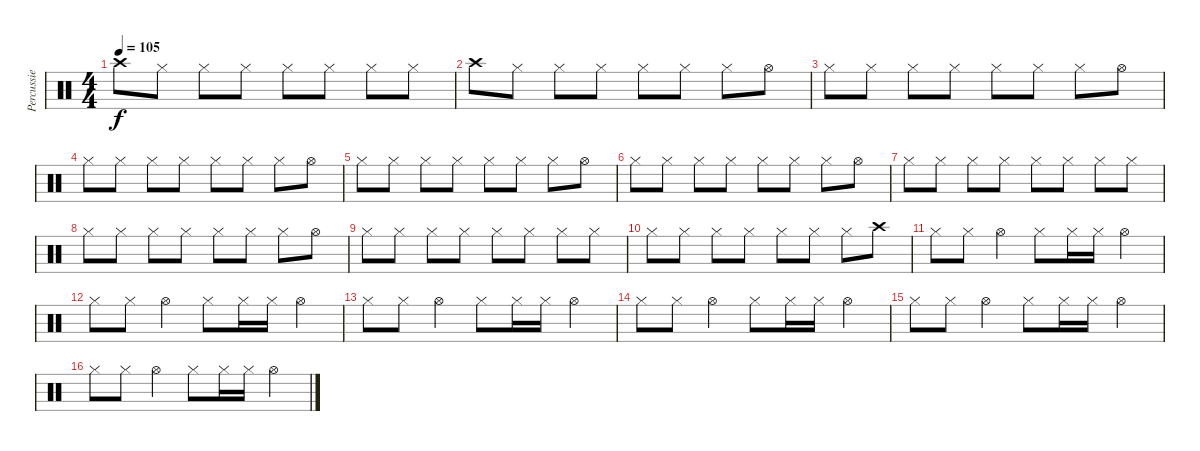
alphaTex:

\track ("Percussie" "Percussie") {instrument percussion}
\staff {score}
\articulation defaults
\ts (4 4)
\tempo 105
\clef neutral
\ks c "Crash high (hit)".8{dy f} "Hi-Hat (closed)".8 "Hi-Hat (closed)".8 "Hi-Hat (closed)".8 "Hi-Hat (closed)".8 "Hi-Hat (closed)".8 "Hi-Hat (closed)".8 "Hi-Hat (closed)".8
|
"Crash high (hit)".8 "Hi-Hat (closed)".8 "Hi-Hat (closed)".8 "Hi-Hat (closed)".8 "Hi-Hat (closed)".8 "Hi-Hat (closed)".8 "Hi-Hat (closed)".8 "Hi-Hat (open)".8 |
"Hi-Hat (closed)".8 "Hi-Hat (closed)".8 "Hi-Hat (closed)".8 "Hi-Hat (closed)".8 "Hi-Hat (closed)".8 "Hi-Hat (closed)".8 "Hi-Hat (closed)".8 "Hi-Hat (open)".8 |
"Hi-Hat (closed)".8 "Hi-Hat (closed)".8 "Hi-Hat (closed)".8 "Hi-Hat (closed)".8 "Hi-Hat (closed)".8 "Hi-Hat (closed)".8 "Hi-Hat (closed)".8 "Hi-Hat (open)".8 |
"Hi-Hat (closed)".8 "Hi-Hat (closed)".8 "Hi-Hat (closed)".8 "Hi-Hat (closed)".8 "Hi-Hat (closed)".8 "Hi-Hat (closed)".8 "Hi-Hat (closed)".8 "Hi-Hat (open)".8 |
"Hi-Hat (closed)".8 "Hi-Hat (closed)".8 "Hi-Hat (closed)".8 "Hi-Hat (closed)".8 "Hi-Hat (closed)".8 "Hi-Hat (closed)".8 "Hi-Hat (closed)".8 "Hi-Hat (open)".8 |
"Hi-Hat (closed)".8 "Hi-Hat (closed)".8 "Hi-Hat (closed)".8 "Hi-Hat (closed)".8 "Hi-Hat (closed)".8 "Hi-Hat (closed)".8 "Hi-Hat (closed)".8 "Hi-Hat (closed)".8 |
"Hi-Hat (closed)".8 "Hi-Hat (closed)".8 "Hi-Hat (closed)".8 "Hi-Hat (closed)".8 "Hi-Hat (closed)".8 "Hi-Hat (closed)".8 "Hi-Hat (closed)".8 "Hi-Hat (open)".8 |
"Hi-Hat (closed)".8 "Hi-Hat (closed)".8 "Hi-Hat (closed)".8 "Hi-Hat (closed)".8 "Hi-Hat (closed)".8 "Hi-Hat (closed)".8 "Hi-Hat (closed)".8 "Hi-Hat (closed)".8 |
"Hi-Hat (closed)".8 "Hi-Hat (closed)".8 "Hi-Hat (closed)".8 "Hi-Hat (closed)".8 "Hi-Hat (closed)".8 "Hi-Hat (closed)".8 "Hi-Hat (closed)".8 "Crash high (hit)".8 |
"Hi-Hat (closed)".8 "Hi-Hat (closed)".8 "Hi-Hat (open)".4 "Hi-Hat (closed)".8 "Hi-Hat (closed)".16 "Hi-Hat (closed)".16 "Hi-Hat (open)".4 |
"Hi-Hat (closed)".8 "Hi-Hat (closed)".8 "Hi-Hat (open)".4 "Hi-Hat (closed)".8 "Hi-Hat (closed)".16 "Hi-Hat (closed)".16 "Hi-Hat (open)".4 |
"Hi-Hat (closed)".8 "Hi-Hat (closed)".8 "Hi-Hat (open)".4 "Hi-Hat (closed)".8 "Hi-Hat (closed)".16 "Hi-Hat (closed)".16 "Hi-Hat (open)".4 |
"Hi-Hat (closed)".8 "Hi-Hat (closed)".8 "Hi-Hat (open)".4 "Hi-Hat (closed)".8 "Hi-Hat (closed)".16 "Hi-Hat (closed)".16 "Hi-Hat (open)".4 |
"Hi-Hat (closed)".8 "Hi-Hat (closed)".8 "Hi-Hat (open)".4 "Hi-Hat (closed)".8 "Hi-Hat (closed)".16 "Hi-Hat (closed)".16 "Hi-Hat (open)".4 |
"Hi-Hat (closed)".8 "Hi-Hat (closed)".8 "Hi-Hat (open)".4 "Hi-Hat (closed)".8 "Hi-Hat (closed)".16 "Hi-Hat (closed)".16 "Hi-Hat (open)".4
